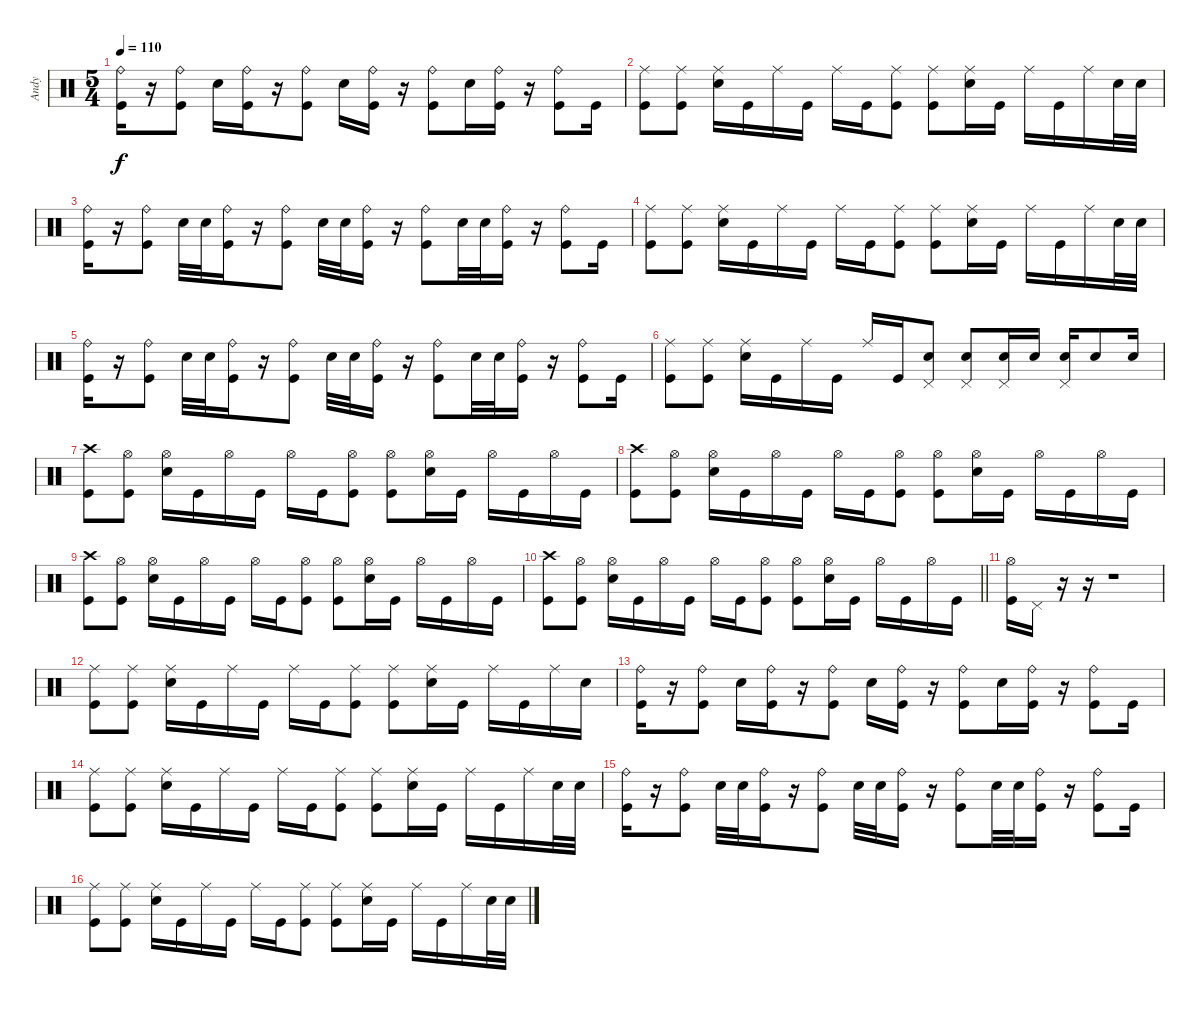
\track ("Andy" "Andy") {instrument percussion}
\staff {score}
\articulation defaults
\ts (5 4)
\tempo 110
\clef neutral
\ks c
("Kick (hit)" "Ride (bell)").16{dy f} r.16 ("Kick (hit)" "Ride (bell)").8 "Snare (hit) 2".16 ("Kick (hit)" "Ride (bell)").16 r.16 ("Kick (hit)" "Ride (bell)").8 "Snare (hit) 2".16 ("Kick (hit)" "Ride (bell)").16 r.16 ("Kick (hit)" "Ride (bell)").8 "Snare (hit) 2".16 ("Kick (hit)" "Ride (bell)").16 r.16 ("Kick (hit)" "Ride (bell)").8 "Kick (hit)".16 |
("Kick (hit)" "Ride (middle)").8 ("Kick (hit)" "Ride (middle)").8 ("Snare (hit) 2" "Ride (middle)").16 "Kick (hit)".16 "Ride (middle)".16 "Kick (hit)".16 "Ride (middle)".16 "Kick (hit)".16 ("Kick (hit)" "Ride (middle)").8 ("Kick (hit)" "Ride (middle)").8 ("Snare (hit) 2" "Ride (middle)").16 "Kick (hit)".16 "Ride (middle)".16 "Kick (hit)".16 "Ride (middle)".16 "Snare (hit) 2".32 "Snare (hit) 2".32 |
("Kick (hit)" "Ride (bell)").16 r.16 ("Kick (hit)" "Ride (bell)").8 "Snare (hit) 2".32 "Snare (hit) 2".32 ("Kick (hit)" "Ride (bell)").16 r.16 ("Kick (hit)" "Ride (bell)").8 "Snare (hit) 2".32 "Snare (hit) 2".32 ("Kick (hit)" "Ride (bell)").16 r.16 ("Kick (hit)" "Ride (bell)").8 "Snare (hit) 2".32 "Snare (hit) 2".32 ("Kick (hit)" "Ride (bell)").16 r.16 ("Kick (hit)" "Ride (bell)").8 "Kick (hit)".16 |
("Kick (hit)" "Ride (middle)").8 ("Kick (hit)" "Ride (middle)").8 ("Snare (hit) 2" "Ride (middle)").16 "Kick (hit)".16 "Ride (middle)".16 "Kick (hit)".16 "Ride (middle)".16 "Kick (hit)".16 ("Kick (hit)" "Ride (middle)").8 ("Kick (hit)" "Ride (middle)").8 ("Snare (hit) 2" "Ride (middle)").16 "Kick (hit)".16 "Ride (middle)".16 "Kick (hit)".16 "Ride (middle)".16 "Snare (hit) 2".32 "Snare (hit) 2".32 |
("Kick (hit)" "Ride (bell)").16 r.16 ("Kick (hit)" "Ride (bell)").8 "Snare (hit) 2".32 "Snare (hit) 2".32 ("Kick (hit)" "Ride (bell)").16 r.16 ("Kick (hit)" "Ride (bell)").8 "Snare (hit) 2".32 "Snare (hit) 2".32 ("Kick (hit)" "Ride (bell)").16 r.16 ("Kick (hit)" "Ride (bell)").8 "Snare (hit) 2".32 "Snare (hit) 2".32 ("Kick (hit)" "Ride (bell)").16 r.16 ("Kick (hit)" "Ride (bell)").8 "Kick (hit)".16 |
("Kick (hit)" "Ride (middle)").8 ("Kick (hit)" "Ride (middle)").8 ("Snare (hit) 2" "Ride (middle)").16 "Kick (hit)".16 "Ride (middle)".16 "Kick (hit)".16 "Ride (middle)".16 "Kick (hit)".16 ("Snare (hit) 2" "Pedal Hi-Hat (hit)").8 ("Snare (hit) 2" "Pedal Hi-Hat (hit)").8 ("Snare (hit) 2" "Pedal Hi-Hat (hit)").16 "Snare (hit) 2".16 ("Snare (hit) 2" "Pedal Hi-Hat (hit)").16 "Snare (hit) 2".8 "Snare (hit) 2".16 |
("Kick (hit)" "Crash high (hit)").8 ("Kick (hit)" "Hi-Hat (open)").8 ("Snare (hit) 2" "Hi-Hat (open)").16 "Kick (hit)".16 "Hi-Hat (open)".16 "Kick (hit)".16 "Hi-Hat (open)".16 "Kick (hit)".16 ("Kick (hit)" "Hi-Hat (open)").8 ("Kick (hit)" "Hi-Hat (open)").8 ("Snare (hit) 2" "Hi-Hat (open)").16 "Kick (hit)".16 "Hi-Hat (open)".16 "Kick (hit)".16 "Hi-Hat (open)".16 "Kick (hit)".16 |
("Kick (hit)" "Crash high (hit)").8 ("Kick (hit)" "Hi-Hat (open)").8 ("Snare (hit) 2" "Hi-Hat (open)").16 "Kick (hit)".16 "Hi-Hat (open)".16 "Kick (hit)".16 "Hi-Hat (open)".16 "Kick (hit)".16 ("Kick (hit)" "Hi-Hat (open)").8 ("Kick (hit)" "Hi-Hat (open)").8 ("Snare (hit) 2" "Hi-Hat (open)").16 "Kick (hit)".16 "Hi-Hat (open)".16 "Kick (hit)".16 "Hi-Hat (open)".16 "Kick (hit)".16 |
("Kick (hit)" "Crash high (hit)").8 ("Kick (hit)" "Hi-Hat (open)").8 ("Snare (hit) 2" "Hi-Hat (open)").16 "Kick (hit)".16 "Hi-Hat (open)".16 "Kick (hit)".16 "Hi-Hat (open)".16 "Kick (hit)".16 ("Kick (hit)" "Hi-Hat (open)").8 ("Kick (hit)" "Hi-Hat (open)").8 ("Snare (hit) 2" "Hi-Hat (open)").16 "Kick (hit)".16 "Hi-Hat (open)".16 "Kick (hit)".16 "Hi-Hat (open)".16 "Kick (hit)".16 |
\barLineRight lightlight
("Kick (hit)" "Crash high (hit)").8 ("Kick (hit)" "Hi-Hat (open)").8 ("Snare (hit) 2" "Hi-Hat (open)").16 "Kick (hit)".16 "Hi-Hat (open)".16 "Kick (hit)".16 "Hi-Hat (open)".16 "Kick (hit)".16 ("Kick (hit)" "Hi-Hat (open)").8 ("Kick (hit)" "Hi-Hat (open)").8 ("Snare (hit) 2" "Hi-Hat (open)").16 "Kick (hit)".16 "Hi-Hat (open)".16 "Kick (hit)".16 "Hi-Hat (open)".16 "Kick (hit)".16 |
\section ("" "")
("Kick (hit)" "Hi-Hat (open)").16 "Pedal Hi-Hat (hit)".16 r.16 r.16 r.1 |
("Kick (hit)" "Ride (middle)").8 ("Kick (hit)" "Ride (middle)").8 ("Snare (hit) 2" "Ride (middle)").16 "Kick (hit)".16 "Ride (middle)".16 "Kick (hit)".16 "Ride (middle)".16 "Kick (hit)".16 ("Kick (hit)" "Ride (middle)").8 ("Kick (hit)" "Ride (middle)").8 ("Snare (hit) 2" "Ride (middle)").16 "Kick (hit)".16 "Ride (middle)".16 "Kick (hit)".16 "Ride (middle)".16 "Snare (hit) 2".16 |
("Kick (hit)" "Ride (bell)").16 r.16 ("Kick (hit)" "Ride (bell)").8 "Snare (hit) 2".16 ("Kick (hit)" "Ride (bell)").16 r.16 ("Kick (hit)" "Ride (bell)").8 "Snare (hit) 2".16 ("Kick (hit)" "Ride (bell)").16 r.16 ("Kick (hit)" "Ride (bell)").8 "Snare (hit) 2".16 ("Kick (hit)" "Ride (bell)").16 r.16 ("Kick (hit)" "Ride (bell)").8 "Kick (hit)".16 |
("Kick (hit)" "Ride (middle)").8 ("Kick (hit)" "Ride (middle)").8 ("Snare (hit) 2" "Ride (middle)").16 "Kick (hit)".16 "Ride (middle)".16 "Kick (hit)".16 "Ride (middle)".16 "Kick (hit)".16 ("Kick (hit)" "Ride (middle)").8 ("Kick (hit)" "Ride (middle)").8 ("Snare (hit) 2" "Ride (middle)").16 "Kick (hit)".16 "Ride (middle)".16 "Kick (hit)".16 "Ride (middle)".16 "Snare (hit) 2".32 "Snare (hit) 2".32 |
("Kick (hit)" "Ride (bell)").16 r.16 ("Kick (hit)" "Ride (bell)").8 "Snare (hit) 2".32 "Snare (hit) 2".32 ("Kick (hit)" "Ride (bell)").16 r.16 ("Kick (hit)" "Ride (bell)").8 "Snare (hit) 2".32 "Snare (hit) 2".32 ("Kick (hit)" "Ride (bell)").16 r.16 ("Kick (hit)" "Ride (bell)").8 "Snare (hit) 2".32 "Snare (hit) 2".32 ("Kick (hit)" "Ride (bell)").16 r.16 ("Kick (hit)" "Ride (bell)").8 "Kick (hit)".16 |
("Kick (hit)" "Ride (middle)").8 ("Kick (hit)" "Ride (middle)").8 ("Snare (hit) 2" "Ride (middle)").16 "Kick (hit)".16 "Ride (middle)".16 "Kick (hit)".16 "Ride (middle)".16 "Kick (hit)".16 ("Kick (hit)" "Ride (middle)").8 ("Kick (hit)" "Ride (middle)").8 ("Snare (hit) 2" "Ride (middle)").16 "Kick (hit)".16 "Ride (middle)".16 "Kick (hit)".16 "Ride (middle)".16 "Snare (hit) 2".32 "Snare (hit) 2".32
